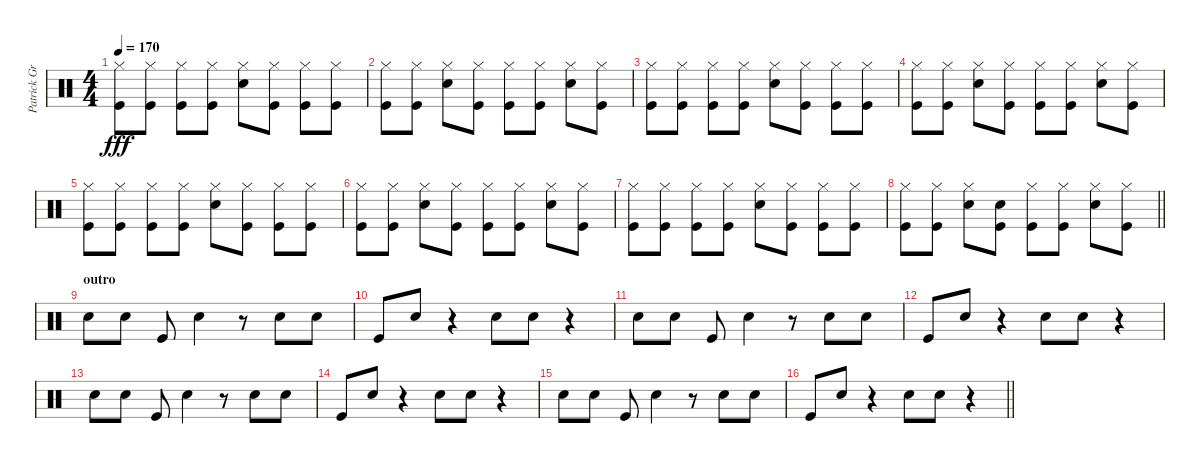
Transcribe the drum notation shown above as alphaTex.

\track ("Patrick Grün - Drums" "Patrick Gr") {instrument percussion}
\staff {score}
\articulation defaults
\ts (4 4)
\tempo 170
\clef neutral
\ks c
("Kick (hit)" "Hi-Hat (closed)").8{dy fff} ("Kick (hit)" "Hi-Hat (closed)").8 ("Kick (hit)" "Hi-Hat (closed)").8 ("Kick (hit)" "Hi-Hat (closed)").8 ("Snare (hit) 2" "Hi-Hat (closed)").8 ("Kick (hit)" "Hi-Hat (closed)").8 ("Kick (hit)" "Hi-Hat (closed)").8 ("Kick (hit)" "Hi-Hat (closed)").8 |
("Kick (hit)" "Hi-Hat (closed)").8 ("Kick (hit)" "Hi-Hat (closed)").8 ("Snare (hit) 2" "Hi-Hat (closed)").8 ("Kick (hit)" "Hi-Hat (closed)").8 ("Kick (hit)" "Hi-Hat (closed)").8 ("Kick (hit)" "Hi-Hat (closed)").8 ("Snare (hit) 2" "Hi-Hat (closed)").8 ("Kick (hit)" "Hi-Hat (closed)").8 |
("Kick (hit)" "Hi-Hat (closed)").8 ("Kick (hit)" "Hi-Hat (closed)").8 ("Kick (hit)" "Hi-Hat (closed)").8 ("Kick (hit)" "Hi-Hat (closed)").8 ("Snare (hit) 2" "Hi-Hat (closed)").8 ("Kick (hit)" "Hi-Hat (closed)").8 ("Kick (hit)" "Hi-Hat (closed)").8 ("Kick (hit)" "Hi-Hat (closed)").8 |
("Kick (hit)" "Hi-Hat (closed)").8 ("Kick (hit)" "Hi-Hat (closed)").8 ("Snare (hit) 2" "Hi-Hat (closed)").8 ("Kick (hit)" "Hi-Hat (closed)").8 ("Kick (hit)" "Hi-Hat (closed)").8 ("Kick (hit)" "Hi-Hat (closed)").8 ("Snare (hit) 2" "Hi-Hat (closed)").8 ("Kick (hit)" "Hi-Hat (closed)").8 |
("Kick (hit)" "Hi-Hat (closed)").8 ("Kick (hit)" "Hi-Hat (closed)").8 ("Kick (hit)" "Hi-Hat (closed)").8 ("Kick (hit)" "Hi-Hat (closed)").8 ("Snare (hit) 2" "Hi-Hat (closed)").8 ("Kick (hit)" "Hi-Hat (closed)").8 ("Kick (hit)" "Hi-Hat (closed)").8 ("Kick (hit)" "Hi-Hat (closed)").8 |
("Kick (hit)" "Hi-Hat (closed)").8 ("Kick (hit)" "Hi-Hat (closed)").8 ("Snare (hit) 2" "Hi-Hat (closed)").8 ("Kick (hit)" "Hi-Hat (closed)").8 ("Kick (hit)" "Hi-Hat (closed)").8 ("Kick (hit)" "Hi-Hat (closed)").8 ("Snare (hit) 2" "Hi-Hat (closed)").8 ("Kick (hit)" "Hi-Hat (closed)").8 |
("Kick (hit)" "Hi-Hat (closed)").8 ("Kick (hit)" "Hi-Hat (closed)").8 ("Kick (hit)" "Hi-Hat (closed)").8 ("Kick (hit)" "Hi-Hat (closed)").8 ("Snare (hit) 2" "Hi-Hat (closed)").8 ("Kick (hit)" "Hi-Hat (closed)").8 ("Kick (hit)" "Hi-Hat (closed)").8 ("Kick (hit)" "Hi-Hat (closed)").8 |
\barLineRight lightlight
("Kick (hit)" "Hi-Hat (closed)").8 ("Kick (hit)" "Hi-Hat (closed)").8 ("Snare (hit) 2" "Hi-Hat (closed)").8 ("Kick (hit)" "Snare (hit)").8 ("Kick (hit)" "Hi-Hat (closed)").8 ("Kick (hit)" "Hi-Hat (closed)").8 ("Snare (hit) 2" "Hi-Hat (closed)").8 ("Kick (hit)" "Hi-Hat (closed)").8 |
\section ("" "outro")
"Snare (hit) 2".8 "Snare (hit) 2".8 "Kick (hit)".8 "Snare (hit) 2".4 r.8 "Snare (hit) 2".8 "Snare (hit) 2".8 |
"Kick (hit)".8 "Snare (hit) 2".8 r.4 "Snare (hit) 2".8 "Snare (hit) 2".8 r.4 |
"Snare (hit) 2".8 "Snare (hit) 2".8 "Kick (hit)".8 "Snare (hit) 2".4 r.8 "Snare (hit) 2".8 "Snare (hit) 2".8 |
"Kick (hit)".8 "Snare (hit) 2".8 r.4 "Snare (hit) 2".8 "Snare (hit) 2".8 r.4 |
"Snare (hit) 2".8 "Snare (hit) 2".8 "Kick (hit)".8 "Snare (hit) 2".4 r.8 "Snare (hit) 2".8 "Snare (hit) 2".8 |
"Kick (hit)".8 "Snare (hit) 2".8 r.4 "Snare (hit) 2".8 "Snare (hit) 2".8 r.4 |
"Snare (hit) 2".8 "Snare (hit) 2".8 "Kick (hit)".8 "Snare (hit) 2".4 r.8 "Snare (hit) 2".8 "Snare (hit) 2".8 |
\barLineRight lightlight "Kick (hit)".8 "Snare (hit) 2".8
r.4 "Snare (hit) 2".8 "Snare (hit) 2".8 r.4
